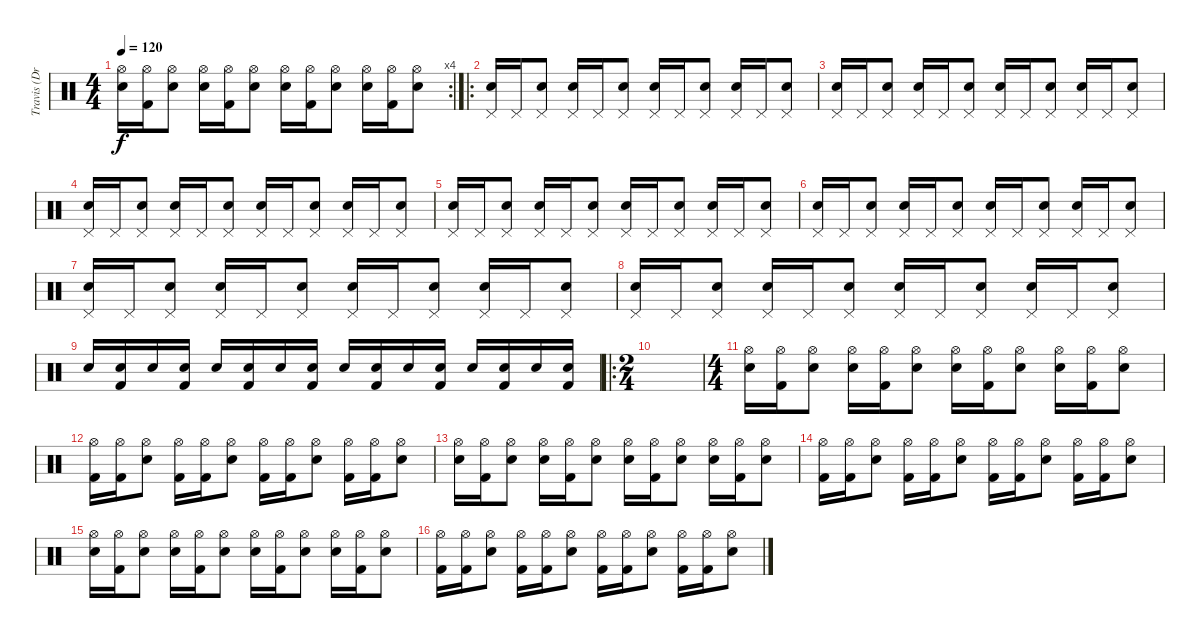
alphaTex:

\track ("Travis (Drum)" "Travis (Dr") {instrument percussion}
\staff {score}
\articulation defaults
\rc 4
\ts (4 4)
\tempo 120
\clef neutral
\ks c
("Hi-Hat (open)" "Electric Snare (hit)").16{dy f} ("Hi-Hat (open)" "Kick (hit) 2").16 ("Hi-Hat (open)" "Electric Snare (hit)").8 ("Hi-Hat (open)" "Electric Snare (hit)").16 ("Hi-Hat (open)" "Kick (hit) 2").16 ("Hi-Hat (open)" "Electric Snare (hit)").8 ("Hi-Hat (open)" "Electric Snare (hit)").16 ("Hi-Hat (open)" "Kick (hit) 2").16 ("Hi-Hat (open)" "Electric Snare (hit)").8 ("Hi-Hat (open)" "Electric Snare (hit)").16 ("Hi-Hat (open)" "Kick (hit) 2").16 ("Hi-Hat (open)" "Electric Snare (hit)").8 |
\ro
("Pedal Hi-Hat (hit)" "Electric Snare (hit)").16 "Pedal Hi-Hat (hit)".16 ("Pedal Hi-Hat (hit)" "Electric Snare (hit)").8 ("Pedal Hi-Hat (hit)" "Electric Snare (hit)").16 "Pedal Hi-Hat (hit)".16 ("Pedal Hi-Hat (hit)" "Electric Snare (hit)").8 ("Pedal Hi-Hat (hit)" "Electric Snare (hit)").16 "Pedal Hi-Hat (hit)".16 ("Pedal Hi-Hat (hit)" "Electric Snare (hit)").8 ("Pedal Hi-Hat (hit)" "Electric Snare (hit)").16 "Pedal Hi-Hat (hit)".16 ("Pedal Hi-Hat (hit)" "Electric Snare (hit)").8 |
("Pedal Hi-Hat (hit)" "Electric Snare (hit)").16 "Pedal Hi-Hat (hit)".16 ("Pedal Hi-Hat (hit)" "Electric Snare (hit)").8 ("Pedal Hi-Hat (hit)" "Electric Snare (hit)").16 "Pedal Hi-Hat (hit)".16 ("Pedal Hi-Hat (hit)" "Electric Snare (hit)").8 ("Pedal Hi-Hat (hit)" "Electric Snare (hit)").16 "Pedal Hi-Hat (hit)".16 ("Pedal Hi-Hat (hit)" "Electric Snare (hit)").8 ("Pedal Hi-Hat (hit)" "Electric Snare (hit)").16 "Pedal Hi-Hat (hit)".16 ("Pedal Hi-Hat (hit)" "Electric Snare (hit)").8 |
("Pedal Hi-Hat (hit)" "Electric Snare (hit)").16 "Pedal Hi-Hat (hit)".16 ("Pedal Hi-Hat (hit)" "Electric Snare (hit)").8 ("Pedal Hi-Hat (hit)" "Electric Snare (hit)").16 "Pedal Hi-Hat (hit)".16 ("Pedal Hi-Hat (hit)" "Electric Snare (hit)").8 ("Pedal Hi-Hat (hit)" "Electric Snare (hit)").16 "Pedal Hi-Hat (hit)".16 ("Pedal Hi-Hat (hit)" "Electric Snare (hit)").8 ("Pedal Hi-Hat (hit)" "Electric Snare (hit)").16 "Pedal Hi-Hat (hit)".16 ("Pedal Hi-Hat (hit)" "Electric Snare (hit)").8 |
("Pedal Hi-Hat (hit)" "Electric Snare (hit)").16 "Pedal Hi-Hat (hit)".16 ("Pedal Hi-Hat (hit)" "Electric Snare (hit)").8 ("Pedal Hi-Hat (hit)" "Electric Snare (hit)").16 "Pedal Hi-Hat (hit)".16 ("Pedal Hi-Hat (hit)" "Electric Snare (hit)").8 ("Pedal Hi-Hat (hit)" "Electric Snare (hit)").16 "Pedal Hi-Hat (hit)".16 ("Pedal Hi-Hat (hit)" "Electric Snare (hit)").8 ("Pedal Hi-Hat (hit)" "Electric Snare (hit)").16 "Pedal Hi-Hat (hit)".16 ("Pedal Hi-Hat (hit)" "Electric Snare (hit)").8 |
("Pedal Hi-Hat (hit)" "Electric Snare (hit)").16 "Pedal Hi-Hat (hit)".16 ("Pedal Hi-Hat (hit)" "Electric Snare (hit)").8 ("Pedal Hi-Hat (hit)" "Electric Snare (hit)").16 "Pedal Hi-Hat (hit)".16 ("Pedal Hi-Hat (hit)" "Electric Snare (hit)").8 ("Pedal Hi-Hat (hit)" "Electric Snare (hit)").16 "Pedal Hi-Hat (hit)".16 ("Pedal Hi-Hat (hit)" "Electric Snare (hit)").8 ("Pedal Hi-Hat (hit)" "Electric Snare (hit)").16 "Pedal Hi-Hat (hit)".16 ("Pedal Hi-Hat (hit)" "Electric Snare (hit)").8 |
("Pedal Hi-Hat (hit)" "Electric Snare (hit)").16 "Pedal Hi-Hat (hit)".16 ("Pedal Hi-Hat (hit)" "Electric Snare (hit)").8 ("Pedal Hi-Hat (hit)" "Electric Snare (hit)").16 "Pedal Hi-Hat (hit)".16 ("Pedal Hi-Hat (hit)" "Electric Snare (hit)").8 ("Pedal Hi-Hat (hit)" "Electric Snare (hit)").16 "Pedal Hi-Hat (hit)".16 ("Pedal Hi-Hat (hit)" "Electric Snare (hit)").8 ("Pedal Hi-Hat (hit)" "Electric Snare (hit)").16 "Pedal Hi-Hat (hit)".16 ("Pedal Hi-Hat (hit)" "Electric Snare (hit)").8 |
("Pedal Hi-Hat (hit)" "Electric Snare (hit)").16 "Pedal Hi-Hat (hit)".16 ("Pedal Hi-Hat (hit)" "Electric Snare (hit)").8 ("Pedal Hi-Hat (hit)" "Electric Snare (hit)").16 "Pedal Hi-Hat (hit)".16 ("Pedal Hi-Hat (hit)" "Electric Snare (hit)").8 ("Pedal Hi-Hat (hit)" "Electric Snare (hit)").16 "Pedal Hi-Hat (hit)".16 ("Pedal Hi-Hat (hit)" "Electric Snare (hit)").8 ("Pedal Hi-Hat (hit)" "Electric Snare (hit)").16 "Pedal Hi-Hat (hit)".16 ("Pedal Hi-Hat (hit)" "Electric Snare (hit)").8 |
"Electric Snare (hit)".16 ("Kick (hit) 2" "Electric Snare (hit)").16 "Electric Snare (hit)".16 ("Kick (hit) 2" "Electric Snare (hit)").16 "Electric Snare (hit)".16 ("Kick (hit) 2" "Electric Snare (hit)").16 "Electric Snare (hit)".16 ("Kick (hit) 2" "Electric Snare (hit)").16 "Electric Snare (hit)".16 ("Kick (hit) 2" "Electric Snare (hit)").16 "Electric Snare (hit)".16 ("Kick (hit) 2" "Electric Snare (hit)").16 "Electric Snare (hit)".16 ("Kick (hit) 2" "Electric Snare (hit)").16 "Electric Snare (hit)".16 ("Kick (hit) 2" "Electric Snare (hit)").16 |
\ro
\ts (2 4)
|
\ts (4 4)
("Hi-Hat (open)" "Electric Snare (hit)").16 ("Hi-Hat (open)" "Kick (hit) 2").16 ("Hi-Hat (open)" "Electric Snare (hit)").8 ("Hi-Hat (open)" "Electric Snare (hit)").16 ("Hi-Hat (open)" "Kick (hit) 2").16 ("Hi-Hat (open)" "Electric Snare (hit)").8 ("Hi-Hat (open)" "Electric Snare (hit)").16 ("Hi-Hat (open)" "Kick (hit) 2").16 ("Hi-Hat (open)" "Electric Snare (hit)").8 ("Hi-Hat (open)" "Electric Snare (hit)").16 ("Hi-Hat (open)" "Kick (hit) 2").16 ("Hi-Hat (open)" "Electric Snare (hit)").8 |
("Hi-Hat (open)" "Kick (hit) 2").16 ("Hi-Hat (open)" "Kick (hit) 2").16 ("Hi-Hat (open)" "Electric Snare (hit)").8 ("Hi-Hat (open)" "Kick (hit) 2").16 ("Hi-Hat (open)" "Kick (hit) 2").16 ("Hi-Hat (open)" "Electric Snare (hit)").8 ("Hi-Hat (open)" "Kick (hit) 2").16 ("Hi-Hat (open)" "Kick (hit) 2").16 ("Hi-Hat (open)" "Electric Snare (hit)").8 ("Hi-Hat (open)" "Kick (hit) 2").16 ("Hi-Hat (open)" "Kick (hit) 2").16 ("Hi-Hat (open)" "Electric Snare (hit)").8 |
("Hi-Hat (open)" "Electric Snare (hit)").16 ("Hi-Hat (open)" "Kick (hit) 2").16 ("Hi-Hat (open)" "Electric Snare (hit)").8 ("Hi-Hat (open)" "Electric Snare (hit)").16 ("Hi-Hat (open)" "Kick (hit) 2").16 ("Hi-Hat (open)" "Electric Snare (hit)").8 ("Hi-Hat (open)" "Electric Snare (hit)").16 ("Hi-Hat (open)" "Kick (hit) 2").16 ("Hi-Hat (open)" "Electric Snare (hit)").8 ("Hi-Hat (open)" "Electric Snare (hit)").16 ("Hi-Hat (open)" "Kick (hit) 2").16 ("Hi-Hat (open)" "Electric Snare (hit)").8 |
("Hi-Hat (open)" "Kick (hit) 2").16 ("Hi-Hat (open)" "Kick (hit) 2").16 ("Hi-Hat (open)" "Electric Snare (hit)").8 ("Hi-Hat (open)" "Kick (hit) 2").16 ("Hi-Hat (open)" "Kick (hit) 2").16 ("Hi-Hat (open)" "Electric Snare (hit)").8 ("Hi-Hat (open)" "Kick (hit) 2").16 ("Hi-Hat (open)" "Kick (hit) 2").16 ("Hi-Hat (open)" "Electric Snare (hit)").8 ("Hi-Hat (open)" "Kick (hit) 2").16 ("Hi-Hat (open)" "Kick (hit) 2").16 ("Hi-Hat (open)" "Electric Snare (hit)").8 |
("Hi-Hat (open)" "Electric Snare (hit)").16 ("Hi-Hat (open)" "Kick (hit) 2").16 ("Hi-Hat (open)" "Electric Snare (hit)").8 ("Hi-Hat (open)" "Electric Snare (hit)").16 ("Hi-Hat (open)" "Kick (hit) 2").16 ("Hi-Hat (open)" "Electric Snare (hit)").8 ("Hi-Hat (open)" "Electric Snare (hit)").16 ("Hi-Hat (open)" "Kick (hit) 2").16 ("Hi-Hat (open)" "Electric Snare (hit)").8 ("Hi-Hat (open)" "Electric Snare (hit)").16 ("Hi-Hat (open)" "Kick (hit) 2").16 ("Hi-Hat (open)" "Electric Snare (hit)").8 |
("Hi-Hat (open)" "Kick (hit) 2").16 ("Hi-Hat (open)" "Kick (hit) 2").16 ("Hi-Hat (open)" "Electric Snare (hit)").8 ("Hi-Hat (open)" "Kick (hit) 2").16 ("Hi-Hat (open)" "Kick (hit) 2").16 ("Hi-Hat (open)" "Electric Snare (hit)").8 ("Hi-Hat (open)" "Kick (hit) 2").16 ("Hi-Hat (open)" "Kick (hit) 2").16 ("Hi-Hat (open)" "Electric Snare (hit)").8 ("Hi-Hat (open)" "Kick (hit) 2").16 ("Hi-Hat (open)" "Kick (hit) 2").16 ("Hi-Hat (open)" "Electric Snare (hit)").8
